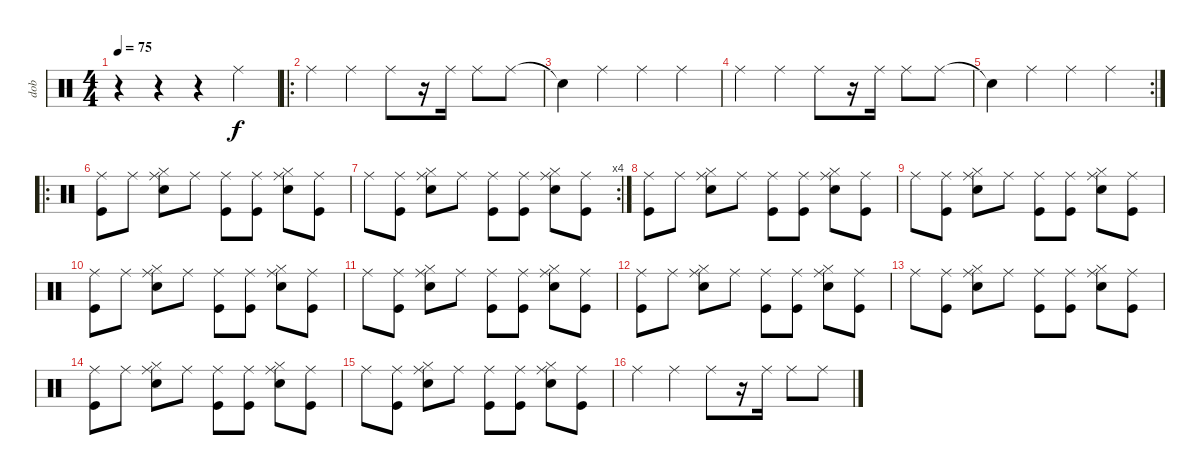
\track ("dob" "dob") {instrument percussion}
\staff {score}
\articulation defaults
\ts (4 4)
\tempo 75
\clef neutral
\ks c
r.4{dy f} r.4 r.4 "Ride (middle)".4 |
\ro "Ride (middle)".4 "Ride (middle)".4 "Ride (middle)".8
r.16 "Ride (middle)".16 "Ride (middle)".8 "Ride (middle)".8 |
"Snare (hit)"{t}.4 "Ride (middle)".4 "Ride (middle)".4 "Ride (middle)".4 |
"Ride (middle)".4 "Ride (middle)".4 "Ride (middle)".8 r.16 "Ride (middle)".16 "Ride (middle)".8 "Ride (middle)".8 |
\rc 2 "Snare (hit)"{t}.4 "Ride (middle)".4 "Ride (middle)".4 "Ride (middle)".4
|
\ro
("Ride (middle)" "Kick (hit)").8 "Ride (middle)".8 ("Ride (middle)" "Hi-Hat (closed)" "Electric Snare (hit)").8 "Ride (middle)".8 ("Ride (middle)" "Kick (hit)").8 ("Ride (middle)" "Kick (hit)").8 ("Ride (middle)" "Hi-Hat (closed)" "Electric Snare (hit)").8 ("Ride (middle)" "Kick (hit)").8 |
\rc 4 "Ride (middle)".8
("Ride (middle)" "Kick (hit)").8 ("Ride (middle)" "Hi-Hat (closed)" "Electric Snare (hit)").8 "Ride (middle)".8 ("Ride (middle)" "Kick (hit)").8 ("Ride (middle)" "Kick (hit)").8 ("Ride (middle)" "Hi-Hat (closed)" "Electric Snare (hit)").8 ("Ride (middle)" "Kick (hit)").8 |
("Ride (middle)" "Kick (hit)").8 "Ride (middle)".8 ("Ride (middle)" "Hi-Hat (closed)" "Electric Snare (hit)").8 "Ride (middle)".8 ("Ride (middle)" "Kick (hit)").8 ("Ride (middle)" "Kick (hit)").8 ("Ride (middle)" "Hi-Hat (closed)" "Electric Snare (hit)").8 ("Ride (middle)" "Kick (hit)").8 |
"Ride (middle)".8 ("Ride (middle)" "Kick (hit)").8 ("Ride (middle)" "Hi-Hat (closed)" "Electric Snare (hit)").8 "Ride (middle)".8 ("Ride (middle)" "Kick (hit)").8 ("Ride (middle)" "Kick (hit)").8 ("Ride (middle)" "Hi-Hat (closed)" "Electric Snare (hit)").8 ("Ride (middle)" "Kick (hit)").8 |
("Ride (middle)" "Kick (hit)").8 "Ride (middle)".8 ("Ride (middle)" "Hi-Hat (closed)" "Electric Snare (hit)").8 "Ride (middle)".8 ("Ride (middle)" "Kick (hit)").8 ("Ride (middle)" "Kick (hit)").8 ("Ride (middle)" "Hi-Hat (closed)" "Electric Snare (hit)").8 ("Ride (middle)" "Kick (hit)").8 |
"Ride (middle)".8 ("Ride (middle)" "Kick (hit)").8 ("Ride (middle)" "Hi-Hat (closed)" "Electric Snare (hit)").8 "Ride (middle)".8 ("Ride (middle)" "Kick (hit)").8 ("Ride (middle)" "Kick (hit)").8 ("Ride (middle)" "Hi-Hat (closed)" "Electric Snare (hit)").8 ("Ride (middle)" "Kick (hit)").8 |
("Ride (middle)" "Kick (hit)").8 "Ride (middle)".8 ("Ride (middle)" "Hi-Hat (closed)" "Electric Snare (hit)").8 "Ride (middle)".8 ("Ride (middle)" "Kick (hit)").8 ("Ride (middle)" "Kick (hit)").8 ("Ride (middle)" "Hi-Hat (closed)" "Electric Snare (hit)").8 ("Ride (middle)" "Kick (hit)").8 |
"Ride (middle)".8 ("Ride (middle)" "Kick (hit)").8 ("Ride (middle)" "Hi-Hat (closed)" "Electric Snare (hit)").8 "Ride (middle)".8 ("Ride (middle)" "Kick (hit)").8 ("Ride (middle)" "Kick (hit)").8 ("Ride (middle)" "Hi-Hat (closed)" "Electric Snare (hit)").8 ("Ride (middle)" "Kick (hit)").8 |
("Ride (middle)" "Kick (hit)").8 "Ride (middle)".8 ("Ride (middle)" "Hi-Hat (closed)" "Electric Snare (hit)").8 "Ride (middle)".8 ("Ride (middle)" "Kick (hit)").8 ("Ride (middle)" "Kick (hit)").8 ("Ride (middle)" "Hi-Hat (closed)" "Electric Snare (hit)").8 ("Ride (middle)" "Kick (hit)").8 |
"Ride (middle)".8 ("Ride (middle)" "Kick (hit)").8 ("Ride (middle)" "Hi-Hat (closed)" "Electric Snare (hit)").8 "Ride (middle)".8 ("Ride (middle)" "Kick (hit)").8 ("Ride (middle)" "Kick (hit)").8 ("Ride (middle)" "Hi-Hat (closed)" "Electric Snare (hit)").8 ("Ride (middle)" "Kick (hit)").8 |
"Ride (middle)".4 "Ride (middle)".4 "Ride (middle)".8 r.16 "Ride (middle)".16 "Ride (middle)".8 "Ride (middle)".8
